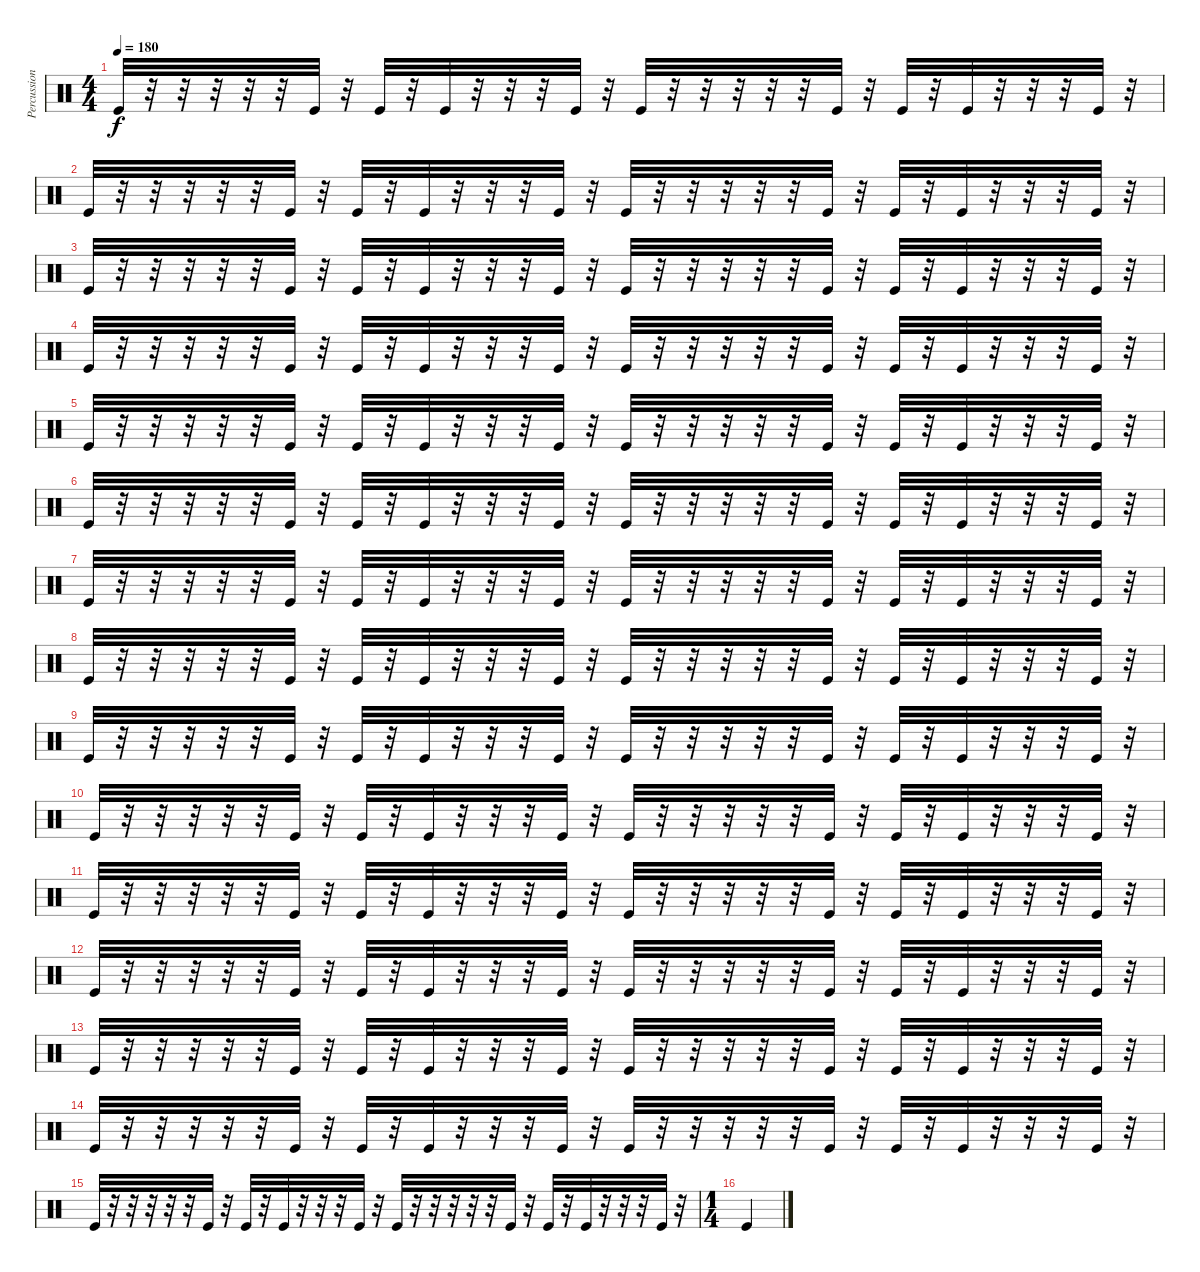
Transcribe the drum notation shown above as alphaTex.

\track ("Percussion" "Percussion") {instrument percussion}
\staff {score}
\articulation defaults
\ts (4 4)
\tempo 180
\clef neutral
\ks c "Kick (hit)".32{dy f}
r.32 r.32 r.32 r.32 r.32 "Kick (hit)".32 r.32 "Kick (hit)".32 r.32 "Kick (hit)".32 r.32 r.32 r.32 "Kick (hit)".32 r.32 "Kick (hit)".32 r.32 r.32 r.32 r.32 r.32 "Kick (hit)".32 r.32 "Kick (hit)".32 r.32 "Kick (hit)".32 r.32 r.32 r.32 "Kick (hit)".32 r.32 |
"Kick (hit)".32 r.32 r.32 r.32 r.32 r.32 "Kick (hit)".32 r.32 "Kick (hit)".32 r.32 "Kick (hit)".32 r.32 r.32 r.32 "Kick (hit)".32 r.32 "Kick (hit)".32 r.32 r.32 r.32 r.32 r.32 "Kick (hit)".32 r.32 "Kick (hit)".32 r.32 "Kick (hit)".32 r.32 r.32 r.32 "Kick (hit)".32 r.32 |
"Kick (hit)".32 r.32 r.32 r.32 r.32 r.32 "Kick (hit)".32 r.32 "Kick (hit)".32 r.32 "Kick (hit)".32 r.32 r.32 r.32 "Kick (hit)".32 r.32 "Kick (hit)".32 r.32 r.32 r.32 r.32 r.32 "Kick (hit)".32 r.32 "Kick (hit)".32 r.32 "Kick (hit)".32 r.32 r.32 r.32 "Kick (hit)".32 r.32 |
"Kick (hit)".32 r.32 r.32 r.32 r.32 r.32 "Kick (hit)".32 r.32 "Kick (hit)".32 r.32 "Kick (hit)".32 r.32 r.32 r.32 "Kick (hit)".32 r.32 "Kick (hit)".32 r.32 r.32 r.32 r.32 r.32 "Kick (hit)".32 r.32 "Kick (hit)".32 r.32 "Kick (hit)".32 r.32 r.32 r.32 "Kick (hit)".32 r.32 |
"Kick (hit)".32 r.32 r.32 r.32 r.32 r.32 "Kick (hit)".32 r.32 "Kick (hit)".32 r.32 "Kick (hit)".32 r.32 r.32 r.32 "Kick (hit)".32 r.32 "Kick (hit)".32 r.32 r.32 r.32 r.32 r.32 "Kick (hit)".32 r.32 "Kick (hit)".32 r.32 "Kick (hit)".32 r.32 r.32 r.32 "Kick (hit)".32 r.32 |
"Kick (hit)".32 r.32 r.32 r.32 r.32 r.32 "Kick (hit)".32 r.32 "Kick (hit)".32 r.32 "Kick (hit)".32 r.32 r.32 r.32 "Kick (hit)".32 r.32 "Kick (hit)".32 r.32 r.32 r.32 r.32 r.32 "Kick (hit)".32 r.32 "Kick (hit)".32 r.32 "Kick (hit)".32 r.32 r.32 r.32 "Kick (hit)".32 r.32 |
"Kick (hit)".32 r.32 r.32 r.32 r.32 r.32 "Kick (hit)".32 r.32 "Kick (hit)".32 r.32 "Kick (hit)".32 r.32 r.32 r.32 "Kick (hit)".32 r.32 "Kick (hit)".32 r.32 r.32 r.32 r.32 r.32 "Kick (hit)".32 r.32 "Kick (hit)".32 r.32 "Kick (hit)".32 r.32 r.32 r.32 "Kick (hit)".32 r.32 |
"Kick (hit)".32 r.32 r.32 r.32 r.32 r.32 "Kick (hit)".32 r.32 "Kick (hit)".32 r.32 "Kick (hit)".32 r.32 r.32 r.32 "Kick (hit)".32 r.32 "Kick (hit)".32 r.32 r.32 r.32 r.32 r.32 "Kick (hit)".32 r.32 "Kick (hit)".32 r.32 "Kick (hit)".32 r.32 r.32 r.32 "Kick (hit)".32 r.32 |
"Kick (hit)".32 r.32 r.32 r.32 r.32 r.32 "Kick (hit)".32 r.32 "Kick (hit)".32 r.32 "Kick (hit)".32 r.32 r.32 r.32 "Kick (hit)".32 r.32 "Kick (hit)".32 r.32 r.32 r.32 r.32 r.32 "Kick (hit)".32 r.32 "Kick (hit)".32 r.32 "Kick (hit)".32 r.32 r.32 r.32 "Kick (hit)".32 r.32 |
"Kick (hit)".32 r.32 r.32 r.32 r.32 r.32 "Kick (hit)".32 r.32 "Kick (hit)".32 r.32 "Kick (hit)".32 r.32 r.32 r.32 "Kick (hit)".32 r.32 "Kick (hit)".32 r.32 r.32 r.32 r.32 r.32 "Kick (hit)".32 r.32 "Kick (hit)".32 r.32 "Kick (hit)".32 r.32 r.32 r.32 "Kick (hit)".32 r.32 |
"Kick (hit)".32 r.32 r.32 r.32 r.32 r.32 "Kick (hit)".32 r.32 "Kick (hit)".32 r.32 "Kick (hit)".32 r.32 r.32 r.32 "Kick (hit)".32 r.32 "Kick (hit)".32 r.32 r.32 r.32 r.32 r.32 "Kick (hit)".32 r.32 "Kick (hit)".32 r.32 "Kick (hit)".32 r.32 r.32 r.32 "Kick (hit)".32 r.32 |
"Kick (hit)".32 r.32 r.32 r.32 r.32 r.32 "Kick (hit)".32 r.32 "Kick (hit)".32 r.32 "Kick (hit)".32 r.32 r.32 r.32 "Kick (hit)".32 r.32 "Kick (hit)".32 r.32 r.32 r.32 r.32 r.32 "Kick (hit)".32 r.32 "Kick (hit)".32 r.32 "Kick (hit)".32 r.32 r.32 r.32 "Kick (hit)".32 r.32 |
"Kick (hit)".32 r.32 r.32 r.32 r.32 r.32 "Kick (hit)".32 r.32 "Kick (hit)".32 r.32 "Kick (hit)".32 r.32 r.32 r.32 "Kick (hit)".32 r.32 "Kick (hit)".32 r.32 r.32 r.32 r.32 r.32 "Kick (hit)".32 r.32 "Kick (hit)".32 r.32 "Kick (hit)".32 r.32 r.32 r.32 "Kick (hit)".32 r.32 |
"Kick (hit)".32 r.32 r.32 r.32 r.32 r.32 "Kick (hit)".32 r.32 "Kick (hit)".32 r.32 "Kick (hit)".32 r.32 r.32 r.32 "Kick (hit)".32 r.32 "Kick (hit)".32 r.32 r.32 r.32 r.32 r.32 "Kick (hit)".32 r.32 "Kick (hit)".32 r.32 "Kick (hit)".32 r.32 r.32 r.32 "Kick (hit)".32 r.32 |
"Kick (hit)".32 r.32 r.32 r.32 r.32 r.32 "Kick (hit)".32 r.32 "Kick (hit)".32 r.32 "Kick (hit)".32 r.32 r.32 r.32 "Kick (hit)".32 r.32 "Kick (hit)".32 r.32 r.32 r.32 r.32 r.32 "Kick (hit)".32 r.32 "Kick (hit)".32 r.32 "Kick (hit)".32 r.32 r.32 r.32 "Kick (hit)".32 r.32 |
\ts (1 4)
"Kick (hit)".4
